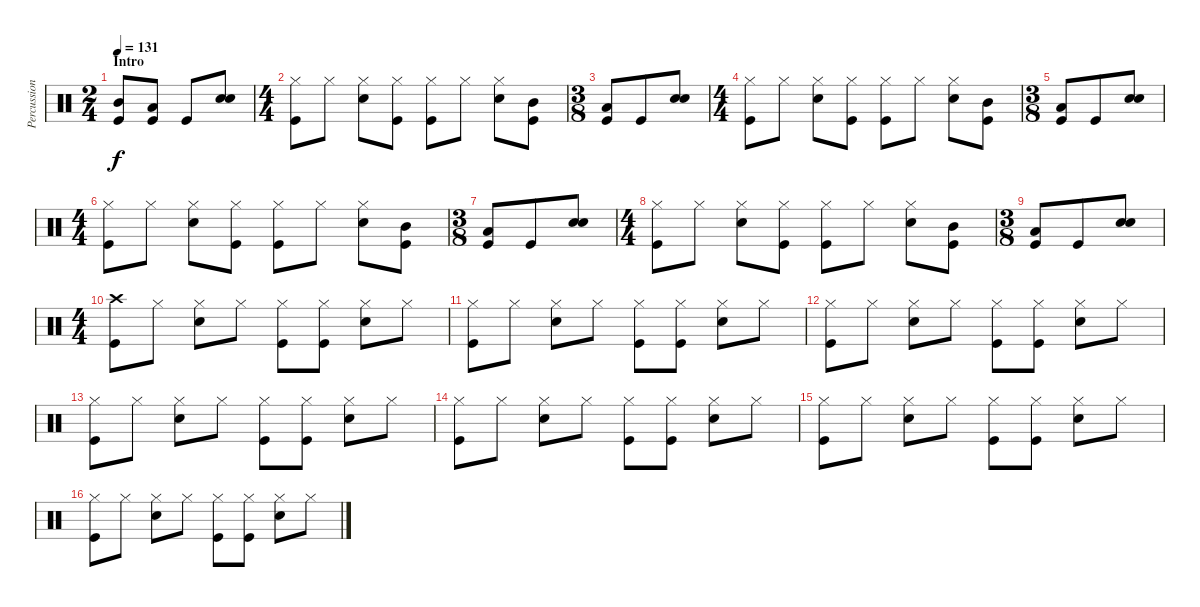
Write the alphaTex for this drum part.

\track ("Percussions" "Percussion") {instrument percussion}
\staff {score}
\articulation defaults
\ts (2 4)
\section ("" "Intro")
\tempo 131
\clef neutral
\ks c
("Mid Tom (hit)" "Kick (hit)").8{dy f} ("Low Tom (hit)" "Kick (hit)").8 "Kick (hit)".8 ("Electric Snare (hit)" "Electric Snare (hit)").8{bd 120} |
\ts (4 4)
("Hi-Hat (closed)" "Kick (hit)").8 "Hi-Hat (closed)".8 ("Hi-Hat (closed)" "Electric Snare (hit)").8 ("Hi-Hat (closed)" "Kick (hit)").8 ("Hi-Hat (closed)" "Kick (hit)").8 "Hi-Hat (closed)".8 ("Hi-Hat (closed)" "Electric Snare (hit)").8 ("Mid Tom (hit)" "Kick (hit)").8 |
\ts (3 8)
("Low Tom (hit)" "Kick (hit)").8 "Kick (hit)".8 ("Electric Snare (hit)" "Electric Snare (hit)").8{bd 120} |
\ts (4 4)
("Hi-Hat (closed)" "Kick (hit)").8 "Hi-Hat (closed)".8 ("Hi-Hat (closed)" "Electric Snare (hit)").8 ("Hi-Hat (closed)" "Kick (hit)").8 ("Hi-Hat (closed)" "Kick (hit)").8 "Hi-Hat (closed)".8 ("Hi-Hat (closed)" "Electric Snare (hit)").8 ("Mid Tom (hit)" "Kick (hit)").8 |
\ts (3 8)
("Low Tom (hit)" "Kick (hit)").8 "Kick (hit)".8 ("Electric Snare (hit)" "Electric Snare (hit)").8{bd 120} |
\ts (4 4)
("Hi-Hat (closed)" "Kick (hit)").8 "Hi-Hat (closed)".8 ("Hi-Hat (closed)" "Electric Snare (hit)").8 ("Hi-Hat (closed)" "Kick (hit)").8 ("Hi-Hat (closed)" "Kick (hit)").8 "Hi-Hat (closed)".8 ("Hi-Hat (closed)" "Electric Snare (hit)").8 ("Mid Tom (hit)" "Kick (hit)").8 |
\ts (3 8)
("Low Tom (hit)" "Kick (hit)").8 "Kick (hit)".8 ("Electric Snare (hit)" "Electric Snare (hit)").8{bd 120} |
\ts (4 4)
("Hi-Hat (closed)" "Kick (hit)").8 "Hi-Hat (closed)".8 ("Hi-Hat (closed)" "Electric Snare (hit)").8 ("Hi-Hat (closed)" "Kick (hit)").8 ("Hi-Hat (closed)" "Kick (hit)").8 "Hi-Hat (closed)".8 ("Hi-Hat (closed)" "Electric Snare (hit)").8 ("Mid Tom (hit)" "Kick (hit)").8 |
\ts (3 8)
("Low Tom (hit)" "Kick (hit)").8 "Kick (hit)".8 ("Electric Snare (hit)" "Electric Snare (hit)").8{bd 120} |
\ts (4 4)
("Crash high (hit)" "Kick (hit)").8 "Hi-Hat (closed)".8 ("Hi-Hat (closed)" "Electric Snare (hit)").8 "Hi-Hat (closed)".8 ("Hi-Hat (closed)" "Kick (hit)").8 ("Hi-Hat (closed)" "Kick (hit)").8 ("Hi-Hat (closed)" "Electric Snare (hit)").8 "Hi-Hat (closed)".8 |
("Hi-Hat (closed)" "Kick (hit)").8 "Hi-Hat (closed)".8 ("Hi-Hat (closed)" "Electric Snare (hit)").8 "Hi-Hat (closed)".8 ("Hi-Hat (closed)" "Kick (hit)").8 ("Hi-Hat (closed)" "Kick (hit)").8 ("Hi-Hat (closed)" "Electric Snare (hit)").8 "Hi-Hat (closed)".8 |
("Hi-Hat (closed)" "Kick (hit)").8 "Hi-Hat (closed)".8 ("Hi-Hat (closed)" "Electric Snare (hit)").8 "Hi-Hat (closed)".8 ("Hi-Hat (closed)" "Kick (hit)").8 ("Hi-Hat (closed)" "Kick (hit)").8 ("Hi-Hat (closed)" "Electric Snare (hit)").8 "Hi-Hat (closed)".8 |
("Hi-Hat (closed)" "Kick (hit)").8 "Hi-Hat (closed)".8 ("Hi-Hat (closed)" "Electric Snare (hit)").8 "Hi-Hat (closed)".8 ("Hi-Hat (closed)" "Kick (hit)").8 ("Hi-Hat (closed)" "Kick (hit)").8 ("Hi-Hat (closed)" "Electric Snare (hit)").8 "Hi-Hat (closed)".8 |
("Hi-Hat (closed)" "Kick (hit)").8 "Hi-Hat (closed)".8 ("Hi-Hat (closed)" "Electric Snare (hit)").8 "Hi-Hat (closed)".8 ("Hi-Hat (closed)" "Kick (hit)").8 ("Hi-Hat (closed)" "Kick (hit)").8 ("Hi-Hat (closed)" "Electric Snare (hit)").8 "Hi-Hat (closed)".8 |
("Hi-Hat (closed)" "Kick (hit)").8 "Hi-Hat (closed)".8 ("Hi-Hat (closed)" "Electric Snare (hit)").8 "Hi-Hat (closed)".8 ("Hi-Hat (closed)" "Kick (hit)").8 ("Hi-Hat (closed)" "Kick (hit)").8 ("Hi-Hat (closed)" "Electric Snare (hit)").8 "Hi-Hat (closed)".8 |
("Hi-Hat (closed)" "Kick (hit)").8 "Hi-Hat (closed)".8 ("Hi-Hat (closed)" "Electric Snare (hit)").8 "Hi-Hat (closed)".8 ("Hi-Hat (closed)" "Kick (hit)").8 ("Hi-Hat (closed)" "Kick (hit)").8 ("Hi-Hat (closed)" "Electric Snare (hit)").8 "Hi-Hat (closed)".8
